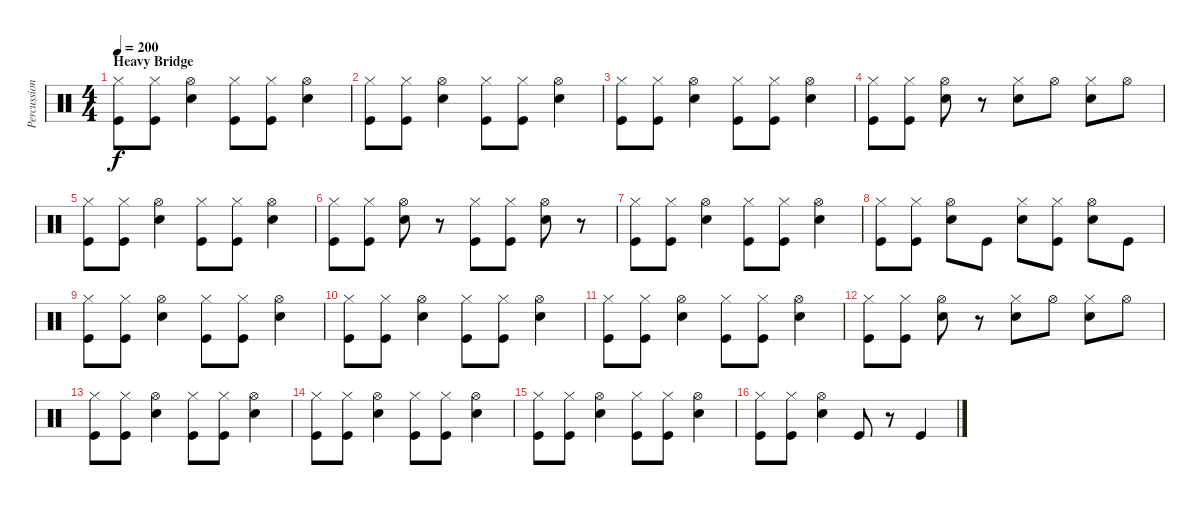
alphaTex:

\track ("Percussion" "Percussion") {instrument percussion}
\staff {score}
\articulation defaults
\ts (4 4)
\section ("" "Heavy Bridge")
\tempo 200
\clef neutral
\ks c
("Hi-Hat (closed)" "Kick (hit)").8{dy f} ("Hi-Hat (closed)" "Kick (hit)").8 ("Hi-Hat (open)" "Snare (hit) 2").4 ("Hi-Hat (closed)" "Kick (hit)").8 ("Hi-Hat (closed)" "Kick (hit)").8 ("Hi-Hat (open)" "Snare (hit) 2").4 |
("Hi-Hat (closed)" "Kick (hit)").8 ("Hi-Hat (closed)" "Kick (hit)").8 ("Hi-Hat (open)" "Snare (hit) 2").4 ("Hi-Hat (closed)" "Kick (hit)").8 ("Hi-Hat (closed)" "Kick (hit)").8 ("Hi-Hat (open)" "Snare (hit) 2").4 |
("Hi-Hat (closed)" "Kick (hit)").8 ("Hi-Hat (closed)" "Kick (hit)").8 ("Hi-Hat (open)" "Snare (hit) 2").4 ("Hi-Hat (closed)" "Kick (hit)").8 ("Hi-Hat (closed)" "Kick (hit)").8 ("Hi-Hat (open)" "Snare (hit) 2").4 |
("Hi-Hat (closed)" "Kick (hit)").8 ("Hi-Hat (closed)" "Kick (hit)").8 ("Hi-Hat (open)" "Snare (hit) 2").8 r.8 ("Hi-Hat (closed)" "Snare (hit) 2").8 "Hi-Hat (open)".8 ("Hi-Hat (closed)" "Snare (hit) 2").8 "Hi-Hat (open)".8 |
("Hi-Hat (closed)" "Kick (hit)").8 ("Hi-Hat (closed)" "Kick (hit)").8 ("Hi-Hat (open)" "Snare (hit) 2").4 ("Hi-Hat (closed)" "Kick (hit)").8 ("Hi-Hat (closed)" "Kick (hit)").8 ("Hi-Hat (open)" "Snare (hit) 2").4 |
("Hi-Hat (closed)" "Kick (hit)").8 ("Hi-Hat (closed)" "Kick (hit)").8 ("Hi-Hat (open)" "Snare (hit) 2").8 r.8 ("Hi-Hat (closed)" "Kick (hit)").8 ("Hi-Hat (closed)" "Kick (hit)").8 ("Hi-Hat (open)" "Snare (hit) 2").8 r.8 |
("Hi-Hat (closed)" "Kick (hit)").8 ("Hi-Hat (closed)" "Kick (hit)").8 ("Hi-Hat (open)" "Snare (hit) 2").4 ("Hi-Hat (closed)" "Kick (hit)").8 ("Hi-Hat (closed)" "Kick (hit)").8 ("Hi-Hat (open)" "Snare (hit) 2").4 |
("Hi-Hat (closed)" "Kick (hit)").8 ("Hi-Hat (closed)" "Kick (hit)").8 ("Hi-Hat (open)" "Snare (hit) 2").8 "Kick (hit)".8 ("Hi-Hat (closed)" "Snare (hit) 2").8 ("Hi-Hat (closed)" "Kick (hit)").8 ("Hi-Hat (open)" "Snare (hit) 2").8 "Kick (hit)".8 |
("Hi-Hat (closed)" "Kick (hit)").8 ("Hi-Hat (closed)" "Kick (hit)").8 ("Hi-Hat (open)" "Snare (hit) 2").4 ("Hi-Hat (closed)" "Kick (hit)").8 ("Hi-Hat (closed)" "Kick (hit)").8 ("Hi-Hat (open)" "Snare (hit) 2").4 |
("Hi-Hat (closed)" "Kick (hit)").8 ("Hi-Hat (closed)" "Kick (hit)").8 ("Hi-Hat (open)" "Snare (hit) 2").4 ("Hi-Hat (closed)" "Kick (hit)").8 ("Hi-Hat (closed)" "Kick (hit)").8 ("Hi-Hat (open)" "Snare (hit) 2").4 |
("Hi-Hat (closed)" "Kick (hit)").8 ("Hi-Hat (closed)" "Kick (hit)").8 ("Hi-Hat (open)" "Snare (hit) 2").4 ("Hi-Hat (closed)" "Kick (hit)").8 ("Hi-Hat (closed)" "Kick (hit)").8 ("Hi-Hat (open)" "Snare (hit) 2").4 |
("Hi-Hat (closed)" "Kick (hit)").8 ("Hi-Hat (closed)" "Kick (hit)").8 ("Hi-Hat (open)" "Snare (hit) 2").8 r.8 ("Hi-Hat (closed)" "Snare (hit) 2").8 "Hi-Hat (open)".8 ("Hi-Hat (closed)" "Snare (hit) 2").8 "Hi-Hat (open)".8 |
("Hi-Hat (closed)" "Kick (hit)").8 ("Hi-Hat (closed)" "Kick (hit)").8 ("Hi-Hat (open)" "Snare (hit) 2").4 ("Hi-Hat (closed)" "Kick (hit)").8 ("Hi-Hat (closed)" "Kick (hit)").8 ("Hi-Hat (open)" "Snare (hit) 2").4 |
("Hi-Hat (closed)" "Kick (hit)").8 ("Hi-Hat (closed)" "Kick (hit)").8 ("Hi-Hat (open)" "Snare (hit) 2").4 ("Hi-Hat (closed)" "Kick (hit)").8 ("Hi-Hat (closed)" "Kick (hit)").8 ("Hi-Hat (open)" "Snare (hit) 2").4 |
("Hi-Hat (closed)" "Kick (hit)").8 ("Hi-Hat (closed)" "Kick (hit)").8 ("Hi-Hat (open)" "Snare (hit) 2").4 ("Hi-Hat (closed)" "Kick (hit)").8 ("Hi-Hat (closed)" "Kick (hit)").8 ("Hi-Hat (open)" "Snare (hit) 2").4 |
("Hi-Hat (closed)" "Kick (hit)").8 ("Hi-Hat (closed)" "Kick (hit)").8 ("Hi-Hat (open)" "Snare (hit) 2").4 "Kick (hit)".8 r.8 "Kick (hit)".4
